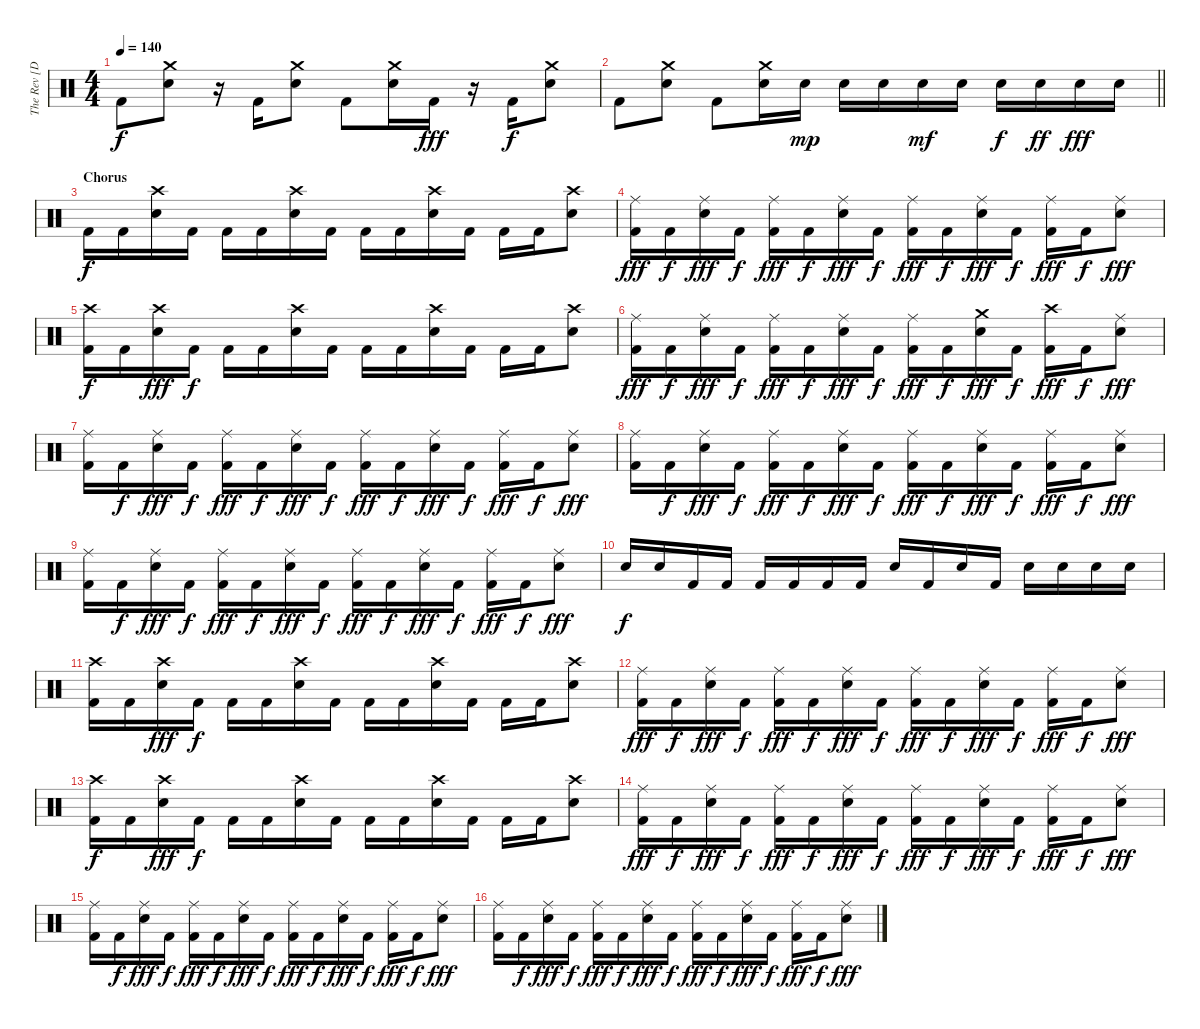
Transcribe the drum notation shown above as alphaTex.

\track ("The Rev [Drum]" "The Rev [D") {instrument percussion}
\staff {score}
\articulation defaults
\ts (4 4)
\tempo 140
\clef neutral
\ks c "Kick (hit) 2".8{dy f}
("Crash medium (hit)" "Snare (hit) 2").8 r.16 "Kick (hit) 2".16 ("Crash medium (hit)" "Snare (hit) 2").8 "Kick (hit) 2".8 ("Crash medium (hit)" "Snare (hit) 2").16 "Kick (hit) 2".16{dy fff} r.16 "Kick (hit) 2".16{dy f} ("Crash medium (hit)" "Snare (hit) 2").8 |
\barLineRight lightlight "Kick (hit) 2".8
("Crash medium (hit)" "Snare (hit) 2").8 "Kick (hit) 2".8 ("Crash medium (hit)" "Snare (hit) 2").16 "Snare (hit) 2".16{dy mp} "Snare (hit) 2".16 "Snare (hit) 2".16 "Snare (hit) 2".16{dy mf} "Snare (hit) 2".16 "Snare (hit) 2".16{dy f} "Snare (hit) 2".16{dy ff} "Snare (hit) 2".16{dy fff} "Snare (hit) 2".16 |
\section ("" "Chorus")
"Kick (hit) 2".16{dy f} "Kick (hit) 2".16 ("Crash high (hit)" "Snare (hit) 2").16 "Kick (hit) 2".16 "Kick (hit) 2".16 "Kick (hit) 2".16 ("Crash high (hit)" "Snare (hit) 2").16 "Kick (hit) 2".16 "Kick (hit) 2".16 "Kick (hit) 2".16 ("Crash high (hit)" "Snare (hit) 2").16 "Kick (hit) 2".16 "Kick (hit) 2".16 "Kick (hit) 2".16 ("Crash high (hit)" "Snare (hit) 2").8 |
("Ride (middle)" "Kick (hit) 2").16{dy fff} "Kick (hit) 2".16{dy f} ("Ride (middle)" "Snare (hit) 2").16{dy fff} "Kick (hit) 2".16{dy f} ("Ride (middle)" "Kick (hit) 2").16{dy fff} "Kick (hit) 2".16{dy f} ("Ride (middle)" "Snare (hit) 2").16{dy fff} "Kick (hit) 2".16{dy f} ("Ride (middle)" "Kick (hit) 2").16{dy fff} "Kick (hit) 2".16{dy f} ("Ride (middle)" "Snare (hit) 2").16{dy fff} "Kick (hit) 2".16{dy f} ("Ride (middle)" "Kick (hit) 2").16{dy fff} "Kick (hit) 2".16{dy f} ("Ride (middle)" "Snare (hit) 2").8{dy fff} |
("Crash high (hit)" "Kick (hit) 2").16{dy f} "Kick (hit) 2".16 ("Crash high (hit)" "Snare (hit) 2").16{dy fff} "Kick (hit) 2".16{dy f} "Kick (hit) 2".16 "Kick (hit) 2".16 ("Crash high (hit)" "Snare (hit) 2").16 "Kick (hit) 2".16 "Kick (hit) 2".16 "Kick (hit) 2".16 ("Crash high (hit)" "Snare (hit) 2").16 "Kick (hit) 2".16 "Kick (hit) 2".16 "Kick (hit) 2".16 ("Crash high (hit)" "Snare (hit) 2").8 |
("Ride (middle)" "Kick (hit) 2").16{dy fff} "Kick (hit) 2".16{dy f} ("Ride (middle)" "Snare (hit) 2").16{dy fff} "Kick (hit) 2".16{dy f} ("Ride (middle)" "Kick (hit) 2").16{dy fff} "Kick (hit) 2".16{dy f} ("Ride (middle)" "Snare (hit) 2").16{dy fff} "Kick (hit) 2".16{dy f} ("Ride (middle)" "Kick (hit) 2").16{dy fff} "Kick (hit) 2".16{dy f} ("Crash medium (hit)" "Snare (hit) 2").16{dy fff} "Kick (hit) 2".16{dy f} ("Crash high (hit)" "Kick (hit) 2").16{dy fff} "Kick (hit) 2".16{dy f} ("Ride (middle)" "Snare (hit) 2").8{dy fff} |
("Ride (middle)" "Kick (hit) 2").16 "Kick (hit) 2".16{dy f} ("Ride (middle)" "Snare (hit) 2").16{dy fff} "Kick (hit) 2".16{dy f} ("Ride (middle)" "Kick (hit) 2").16{dy fff} "Kick (hit) 2".16{dy f} ("Ride (middle)" "Snare (hit) 2").16{dy fff} "Kick (hit) 2".16{dy f} ("Ride (middle)" "Kick (hit) 2").16{dy fff} "Kick (hit) 2".16{dy f} ("Ride (middle)" "Snare (hit) 2").16{dy fff} "Kick (hit) 2".16{dy f} ("Ride (middle)" "Kick (hit) 2").16{dy fff} "Kick (hit) 2".16{dy f} ("Ride (middle)" "Snare (hit) 2").8{dy fff} |
("Ride (middle)" "Kick (hit) 2").16 "Kick (hit) 2".16{dy f} ("Ride (middle)" "Snare (hit) 2").16{dy fff} "Kick (hit) 2".16{dy f} ("Ride (middle)" "Kick (hit) 2").16{dy fff} "Kick (hit) 2".16{dy f} ("Ride (middle)" "Snare (hit) 2").16{dy fff} "Kick (hit) 2".16{dy f} ("Ride (middle)" "Kick (hit) 2").16{dy fff} "Kick (hit) 2".16{dy f} ("Ride (middle)" "Snare (hit) 2").16{dy fff} "Kick (hit) 2".16{dy f} ("Ride (middle)" "Kick (hit) 2").16{dy fff} "Kick (hit) 2".16{dy f} ("Ride (middle)" "Snare (hit) 2").8{dy fff} |
("Ride (middle)" "Kick (hit) 2").16 "Kick (hit) 2".16{dy f} ("Ride (middle)" "Snare (hit) 2").16{dy fff} "Kick (hit) 2".16{dy f} ("Ride (middle)" "Kick (hit) 2").16{dy fff} "Kick (hit) 2".16{dy f} ("Ride (middle)" "Snare (hit) 2").16{dy fff} "Kick (hit) 2".16{dy f} ("Ride (middle)" "Kick (hit) 2").16{dy fff} "Kick (hit) 2".16{dy f} ("Ride (middle)" "Snare (hit) 2").16{dy fff} "Kick (hit) 2".16{dy f} ("Ride (middle)" "Kick (hit) 2").16{dy fff} "Kick (hit) 2".16{dy f} ("Ride (middle)" "Snare (hit) 2").8{dy fff} |
"Snare (hit) 2".16{dy f} "Snare (hit) 2".16 "Kick (hit) 2".16 "Kick (hit) 2".16 "Kick (hit) 2".16 "Kick (hit) 2".16 "Kick (hit) 2".16 "Kick (hit) 2".16 "Snare (hit) 2".16 "Kick (hit) 2".16 "Snare (hit) 2".16 "Kick (hit) 2".16 "Snare (hit) 2".16 "Snare (hit) 2".16 "Snare (hit) 2".16 "Snare (hit) 2".16 |
("Crash high (hit)" "Kick (hit) 2").16 "Kick (hit) 2".16 ("Crash high (hit)" "Snare (hit) 2").16{dy fff} "Kick (hit) 2".16{dy f} "Kick (hit) 2".16 "Kick (hit) 2".16 ("Crash high (hit)" "Snare (hit) 2").16 "Kick (hit) 2".16 "Kick (hit) 2".16 "Kick (hit) 2".16 ("Crash high (hit)" "Snare (hit) 2").16 "Kick (hit) 2".16 "Kick (hit) 2".16 "Kick (hit) 2".16 ("Crash high (hit)" "Snare (hit) 2").8 |
("Ride (middle)" "Kick (hit) 2").16{dy fff} "Kick (hit) 2".16{dy f} ("Ride (middle)" "Snare (hit) 2").16{dy fff} "Kick (hit) 2".16{dy f} ("Ride (middle)" "Kick (hit) 2").16{dy fff} "Kick (hit) 2".16{dy f} ("Ride (middle)" "Snare (hit) 2").16{dy fff} "Kick (hit) 2".16{dy f} ("Ride (middle)" "Kick (hit) 2").16{dy fff} "Kick (hit) 2".16{dy f} ("Ride (middle)" "Snare (hit) 2").16{dy fff} "Kick (hit) 2".16{dy f} ("Ride (middle)" "Kick (hit) 2").16{dy fff} "Kick (hit) 2".16{dy f} ("Ride (middle)" "Snare (hit) 2").8{dy fff} |
("Crash high (hit)" "Kick (hit) 2").16{dy f} "Kick (hit) 2".16 ("Crash high (hit)" "Snare (hit) 2").16{dy fff} "Kick (hit) 2".16{dy f} "Kick (hit) 2".16 "Kick (hit) 2".16 ("Crash high (hit)" "Snare (hit) 2").16 "Kick (hit) 2".16 "Kick (hit) 2".16 "Kick (hit) 2".16 ("Crash high (hit)" "Snare (hit) 2").16 "Kick (hit) 2".16 "Kick (hit) 2".16 "Kick (hit) 2".16 ("Crash high (hit)" "Snare (hit) 2").8 |
("Ride (middle)" "Kick (hit) 2").16{dy fff} "Kick (hit) 2".16{dy f} ("Ride (middle)" "Snare (hit) 2").16{dy fff} "Kick (hit) 2".16{dy f} ("Ride (middle)" "Kick (hit) 2").16{dy fff} "Kick (hit) 2".16{dy f} ("Ride (middle)" "Snare (hit) 2").16{dy fff} "Kick (hit) 2".16{dy f} ("Ride (middle)" "Kick (hit) 2").16{dy fff} "Kick (hit) 2".16{dy f} ("Ride (middle)" "Snare (hit) 2").16{dy fff} "Kick (hit) 2".16{dy f} ("Ride (middle)" "Kick (hit) 2").16{dy fff} "Kick (hit) 2".16{dy f} ("Ride (middle)" "Snare (hit) 2").8{dy fff} |
("Ride (middle)" "Kick (hit) 2").16 "Kick (hit) 2".16{dy f} ("Ride (middle)" "Snare (hit) 2").16{dy fff} "Kick (hit) 2".16{dy f} ("Ride (middle)" "Kick (hit) 2").16{dy fff} "Kick (hit) 2".16{dy f} ("Ride (middle)" "Snare (hit) 2").16{dy fff} "Kick (hit) 2".16{dy f} ("Ride (middle)" "Kick (hit) 2").16{dy fff} "Kick (hit) 2".16{dy f} ("Ride (middle)" "Snare (hit) 2").16{dy fff} "Kick (hit) 2".16{dy f} ("Ride (middle)" "Kick (hit) 2").16{dy fff} "Kick (hit) 2".16{dy f} ("Ride (middle)" "Snare (hit) 2").8{dy fff} |
("Ride (middle)" "Kick (hit) 2").16 "Kick (hit) 2".16{dy f} ("Ride (middle)" "Snare (hit) 2").16{dy fff} "Kick (hit) 2".16{dy f} ("Ride (middle)" "Kick (hit) 2").16{dy fff} "Kick (hit) 2".16{dy f} ("Ride (middle)" "Snare (hit) 2").16{dy fff} "Kick (hit) 2".16{dy f} ("Ride (middle)" "Kick (hit) 2").16{dy fff} "Kick (hit) 2".16{dy f} ("Ride (middle)" "Snare (hit) 2").16{dy fff} "Kick (hit) 2".16{dy f} ("Ride (middle)" "Kick (hit) 2").16{dy fff} "Kick (hit) 2".16{dy f} ("Ride (middle)" "Snare (hit) 2").8{dy fff}
